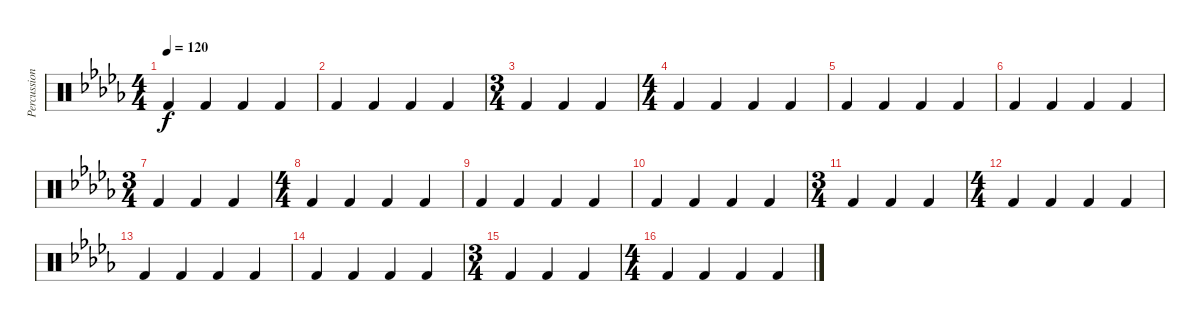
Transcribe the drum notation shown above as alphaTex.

\track ("Percussions" "Percussion") {instrument percussion}
\staff {score}
\articulation defaults
\ts (4 4)
\tempo 120
\clef neutral
\ks db "Kick (hit) 2".4{dy f} "Kick (hit) 2".4 "Kick (hit) 2".4 "Kick (hit) 2".4
|
"Kick (hit) 2".4 "Kick (hit) 2".4 "Kick (hit) 2".4 "Kick (hit) 2".4 |
\ts (3 4)
"Kick (hit) 2".4 "Kick (hit) 2".4 "Kick (hit) 2".4 |
\ts (4 4)
"Kick (hit) 2".4 "Kick (hit) 2".4 "Kick (hit) 2".4 "Kick (hit) 2".4 |
"Kick (hit) 2".4 "Kick (hit) 2".4 "Kick (hit) 2".4 "Kick (hit) 2".4 |
"Kick (hit) 2".4 "Kick (hit) 2".4 "Kick (hit) 2".4 "Kick (hit) 2".4 |
\ts (3 4)
"Kick (hit) 2".4 "Kick (hit) 2".4 "Kick (hit) 2".4 |
\ts (4 4)
"Kick (hit) 2".4 "Kick (hit) 2".4 "Kick (hit) 2".4 "Kick (hit) 2".4 |
"Kick (hit) 2".4 "Kick (hit) 2".4 "Kick (hit) 2".4 "Kick (hit) 2".4 |
"Kick (hit) 2".4 "Kick (hit) 2".4 "Kick (hit) 2".4 "Kick (hit) 2".4 |
\ts (3 4)
"Kick (hit) 2".4 "Kick (hit) 2".4 "Kick (hit) 2".4 |
\ts (4 4)
"Kick (hit) 2".4 "Kick (hit) 2".4 "Kick (hit) 2".4 "Kick (hit) 2".4 |
"Kick (hit) 2".4 "Kick (hit) 2".4 "Kick (hit) 2".4 "Kick (hit) 2".4 |
"Kick (hit) 2".4 "Kick (hit) 2".4 "Kick (hit) 2".4 "Kick (hit) 2".4 |
\ts (3 4)
"Kick (hit) 2".4 "Kick (hit) 2".4 "Kick (hit) 2".4 |
\ts (4 4)
"Kick (hit) 2".4 "Kick (hit) 2".4 "Kick (hit) 2".4 "Kick (hit) 2".4
